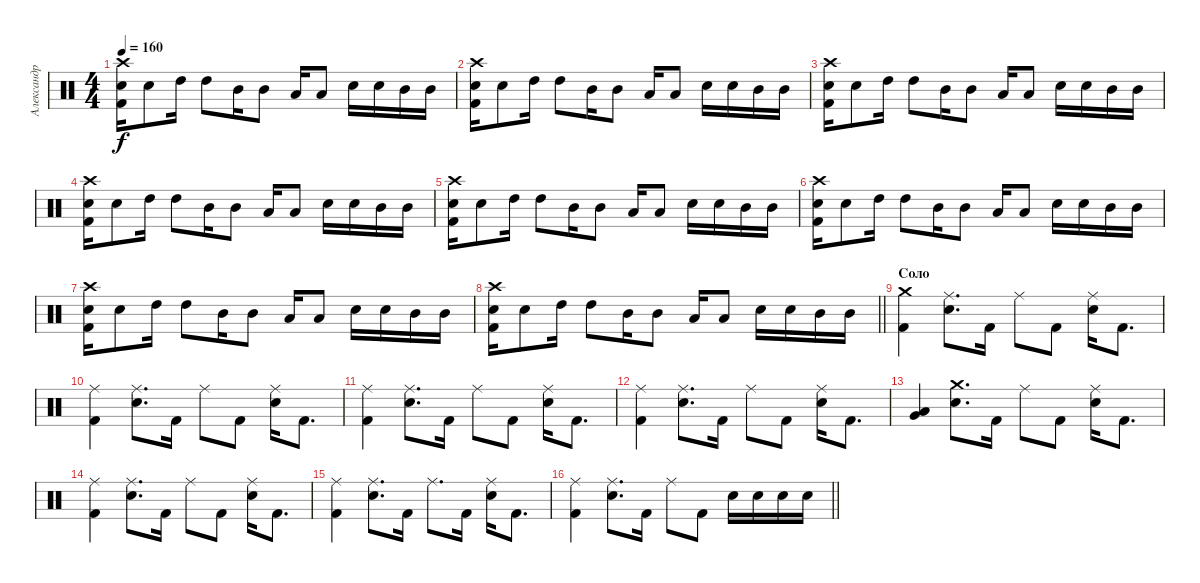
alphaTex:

\track ("Александр Карпухин" "Александр ") {instrument percussion}
\staff {score}
\articulation defaults
\ts (4 4)
\tempo 160
\clef neutral
\ks c
("Crash high (hit)" "Electric Snare (hit)" "Kick (hit) 2").16{dy f} "Electric Snare (hit)".8 "High Tom (hit)".16 "High Tom (hit)".8 "Mid Tom (hit)".16 "Mid Tom (hit)".8 "Low Tom (hit)".16 "Low Tom (hit)".8 "Electric Snare (hit)".16 "Electric Snare (hit)".16 "Mid Tom (hit)".16 "Mid Tom (hit)".16 |
("Crash high (hit)" "Electric Snare (hit)" "Kick (hit) 2").16 "Electric Snare (hit)".8 "High Tom (hit)".16 "High Tom (hit)".8 "Mid Tom (hit)".16 "Mid Tom (hit)".8 "Low Tom (hit)".16 "Low Tom (hit)".8 "Electric Snare (hit)".16 "Electric Snare (hit)".16 "Mid Tom (hit)".16 "Mid Tom (hit)".16 |
("Crash high (hit)" "Electric Snare (hit)" "Kick (hit) 2").16 "Electric Snare (hit)".8 "High Tom (hit)".16 "High Tom (hit)".8 "Mid Tom (hit)".16 "Mid Tom (hit)".8 "Low Tom (hit)".16 "Low Tom (hit)".8 "Electric Snare (hit)".16 "Electric Snare (hit)".16 "Mid Tom (hit)".16 "Mid Tom (hit)".16 |
("Crash high (hit)" "Electric Snare (hit)" "Kick (hit) 2").16 "Electric Snare (hit)".8 "High Tom (hit)".16 "High Tom (hit)".8 "Mid Tom (hit)".16 "Mid Tom (hit)".8 "Low Tom (hit)".16 "Low Tom (hit)".8 "Electric Snare (hit)".16 "Electric Snare (hit)".16 "Mid Tom (hit)".16 "Mid Tom (hit)".16 |
("Crash high (hit)" "Electric Snare (hit)" "Kick (hit) 2").16 "Electric Snare (hit)".8 "High Tom (hit)".16 "High Tom (hit)".8 "Mid Tom (hit)".16 "Mid Tom (hit)".8 "Low Tom (hit)".16 "Low Tom (hit)".8 "Electric Snare (hit)".16 "Electric Snare (hit)".16 "Mid Tom (hit)".16 "Mid Tom (hit)".16 |
("Crash high (hit)" "Electric Snare (hit)" "Kick (hit) 2").16 "Electric Snare (hit)".8 "High Tom (hit)".16 "High Tom (hit)".8 "Mid Tom (hit)".16 "Mid Tom (hit)".8 "Low Tom (hit)".16 "Low Tom (hit)".8 "Electric Snare (hit)".16 "Electric Snare (hit)".16 "Mid Tom (hit)".16 "Mid Tom (hit)".16 |
("Crash high (hit)" "Electric Snare (hit)" "Kick (hit) 2").16 "Electric Snare (hit)".8 "High Tom (hit)".16 "High Tom (hit)".8 "Mid Tom (hit)".16 "Mid Tom (hit)".8 "Low Tom (hit)".16 "Low Tom (hit)".8 "Electric Snare (hit)".16 "Electric Snare (hit)".16 "Mid Tom (hit)".16 "Mid Tom (hit)".16 |
\barLineRight lightlight
("Crash high (hit)" "Electric Snare (hit)" "Kick (hit) 2").16 "Electric Snare (hit)".8 "High Tom (hit)".16 "High Tom (hit)".8 "Mid Tom (hit)".16 "Mid Tom (hit)".8 "Low Tom (hit)".16 "Low Tom (hit)".8 "Electric Snare (hit)".16 "Electric Snare (hit)".16 "Mid Tom (hit)".16 "Mid Tom (hit)".16 |
\section ("" "Соло")
("Kick (hit) 2" "Crash medium (hit)").4 ("Ride (middle)" "Electric Snare (hit)").8{d} "Kick (hit) 2".16 "Ride (middle)".8 "Kick (hit) 2".8 ("Ride (middle)" "Electric Snare (hit)").16 "Kick (hit) 2".8{d} |
("Ride (middle)" "Kick (hit) 2").4 ("Ride (middle)" "Electric Snare (hit)").8{d} "Kick (hit) 2".16 "Ride (middle)".8 "Kick (hit) 2".8 ("Ride (middle)" "Electric Snare (hit)").16 "Kick (hit) 2".8{d} |
("Ride (middle)" "Kick (hit) 2").4 ("Ride (middle)" "Electric Snare (hit)").8{d} "Kick (hit) 2".16 "Ride (middle)".8 "Kick (hit) 2".8 ("Ride (middle)" "Electric Snare (hit)").16 "Kick (hit) 2".8{d} |
("Ride (middle)" "Kick (hit) 2").4 ("Ride (middle)" "Electric Snare (hit)").8{d} "Kick (hit) 2".16 "Ride (middle)".8 "Kick (hit) 2".8 ("Ride (middle)" "Electric Snare (hit)").16 "Kick (hit) 2".8{d} |
("Very Low Tom (hit)" "Low Floor Tom (hit)").4 ("Crash medium (hit)" "Electric Snare (hit)").8{d} "Kick (hit) 2".16 "Ride (middle)".8 "Kick (hit) 2".8 ("Ride (middle)" "Electric Snare (hit)").16 "Kick (hit) 2".8{d} |
("Ride (middle)" "Kick (hit) 2").4 ("Ride (middle)" "Electric Snare (hit)").8{d} "Kick (hit) 2".16 "Ride (middle)".8 "Kick (hit) 2".8 ("Ride (middle)" "Electric Snare (hit)").16 "Kick (hit) 2".8{d} |
("Ride (middle)" "Kick (hit) 2").4 ("Ride (middle)" "Electric Snare (hit)").8{d} "Kick (hit) 2".16 "Ride (middle)".8{d} "Kick (hit) 2".16 ("Ride (middle)" "Electric Snare (hit)").16 "Kick (hit) 2".8{d} |
\barLineRight lightlight
("Ride (middle)" "Kick (hit) 2").4 ("Ride (middle)" "Electric Snare (hit)").8{d} "Kick (hit) 2".16 "Ride (middle)".8 "Kick (hit) 2".8 "Electric Snare (hit)".16 "Electric Snare (hit)".16 "Electric Snare (hit)".16 "Electric Snare (hit)".16
